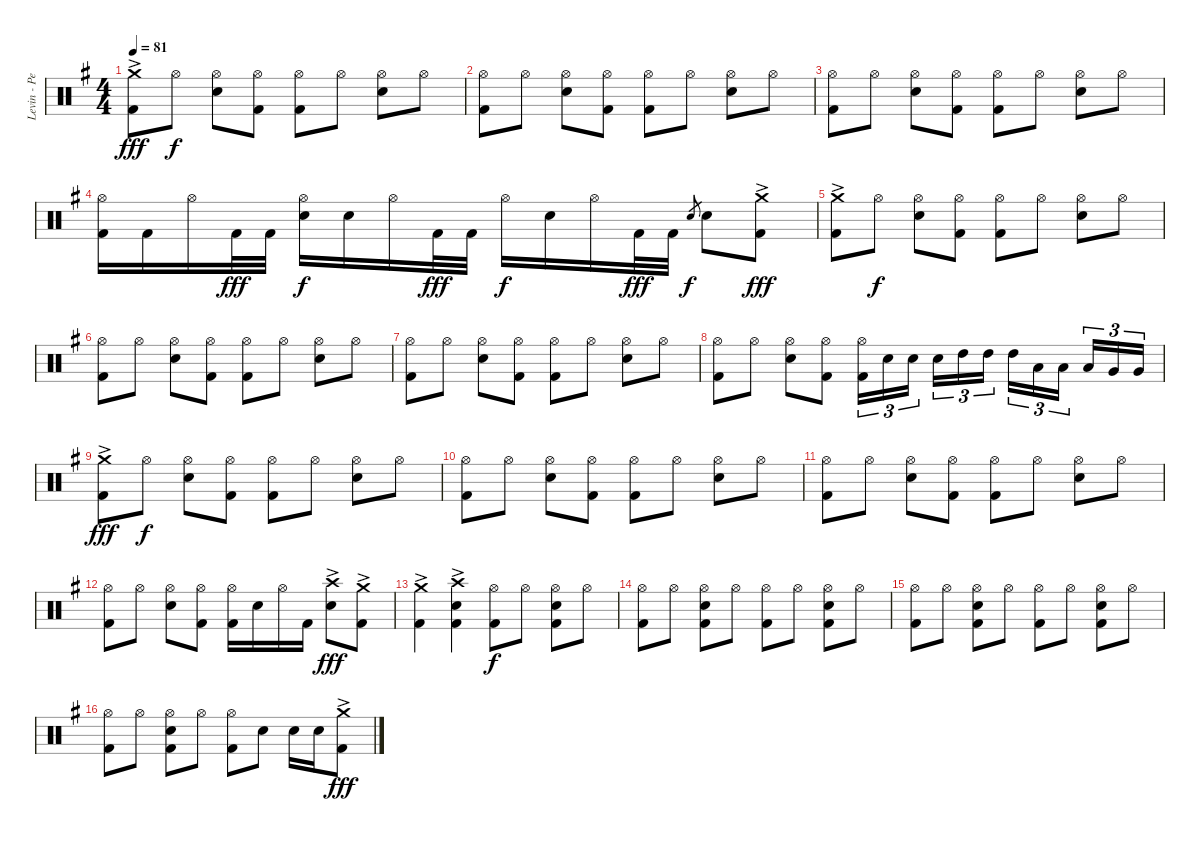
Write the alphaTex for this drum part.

\track ("Levin - Percussion" "Levin - Pe") {instrument percussion}
\staff {score}
\articulation defaults
\ts (4 4)
\tempo 81
\clef neutral
\ks g
("Crash medium (hit)"{ac} "Kick (hit) 2"{ac}).8{dy fff} "Hi-Hat (open)".8{dy f} ("Hi-Hat (open)" "Electric Snare (hit)").8 ("Hi-Hat (open)" "Kick (hit) 2").8 ("Hi-Hat (open)" "Kick (hit) 2").8 "Hi-Hat (open)".8 ("Hi-Hat (open)" "Electric Snare (hit)").8 "Hi-Hat (open)".8 |
("Hi-Hat (open)" "Kick (hit) 2").8 "Hi-Hat (open)".8 ("Hi-Hat (open)" "Electric Snare (hit)").8 ("Hi-Hat (open)" "Kick (hit) 2").8 ("Hi-Hat (open)" "Kick (hit) 2").8 "Hi-Hat (open)".8 ("Hi-Hat (open)" "Electric Snare (hit)").8 "Hi-Hat (open)".8 |
("Hi-Hat (open)" "Kick (hit) 2").8 "Hi-Hat (open)".8 ("Hi-Hat (open)" "Electric Snare (hit)").8 ("Hi-Hat (open)" "Kick (hit) 2").8 ("Hi-Hat (open)" "Kick (hit) 2").8 "Hi-Hat (open)".8 ("Hi-Hat (open)" "Electric Snare (hit)").8 "Hi-Hat (open)".8 |
("Hi-Hat (open)" "Kick (hit) 2").16 "Kick (hit) 2".16 "Hi-Hat (open)".16 "Kick (hit) 2".32{dy fff} "Kick (hit) 2".32 ("Hi-Hat (open)" "Electric Snare (hit)").16{dy f} "Electric Snare (hit)".16 "Hi-Hat (open)".16 "Kick (hit) 2".32{dy fff} "Kick (hit) 2".32 "Hi-Hat (open)".16{dy f} "Electric Snare (hit)".16 "Hi-Hat (open)".16 "Kick (hit) 2".32{dy fff} "Kick (hit) 2".32 "Electric Snare (hit)".8{gr dy f} "Electric Snare (hit)".8 ("Crash medium (hit)"{ac} "Kick (hit) 2"{ac}).8{dy fff} |
("Crash medium (hit)"{ac} "Kick (hit) 2"{ac}).8 "Hi-Hat (open)".8{dy f} ("Hi-Hat (open)" "Electric Snare (hit)").8 ("Hi-Hat (open)" "Kick (hit) 2").8 ("Hi-Hat (open)" "Kick (hit) 2").8 "Hi-Hat (open)".8 ("Hi-Hat (open)" "Electric Snare (hit)").8 "Hi-Hat (open)".8 |
("Hi-Hat (open)" "Kick (hit) 2").8 "Hi-Hat (open)".8 ("Hi-Hat (open)" "Electric Snare (hit)").8 ("Hi-Hat (open)" "Kick (hit) 2").8 ("Hi-Hat (open)" "Kick (hit) 2").8 "Hi-Hat (open)".8 ("Hi-Hat (open)" "Electric Snare (hit)").8 "Hi-Hat (open)".8 |
("Hi-Hat (open)" "Kick (hit) 2").8 "Hi-Hat (open)".8 ("Hi-Hat (open)" "Electric Snare (hit)").8 ("Hi-Hat (open)" "Kick (hit) 2").8 ("Hi-Hat (open)" "Kick (hit) 2").8 "Hi-Hat (open)".8 ("Hi-Hat (open)" "Electric Snare (hit)").8 "Hi-Hat (open)".8 |
("Hi-Hat (open)" "Kick (hit) 2").8 "Hi-Hat (open)".8 ("Hi-Hat (open)" "Electric Snare (hit)").8 ("Hi-Hat (open)" "Kick (hit) 2").8 ("Hi-Hat (open)" "Kick (hit) 2").16{tu (3 2)} "Electric Snare (hit)".16{tu (3 2)} "Electric Snare (hit)".16{tu (3 2)} "Electric Snare (hit)".16{tu (3 2)} "High Tom (hit)".16{tu (3 2)} "High Tom (hit)".16{tu (3 2)} "High Tom (hit)".16{tu (3 2)} "Low Tom (hit)".16{tu (3 2)} "Low Tom (hit)".16{tu (3 2)} "Low Tom (hit)".16{tu (3 2)} "Very Low Tom (hit)".16{tu (3 2)} "Very Low Tom (hit)".16{tu (3 2)} |
("Crash medium (hit)"{ac} "Kick (hit) 2"{ac}).8{dy fff} "Hi-Hat (open)".8{dy f} ("Hi-Hat (open)" "Electric Snare (hit)").8 ("Hi-Hat (open)" "Kick (hit) 2").8 ("Hi-Hat (open)" "Kick (hit) 2").8 "Hi-Hat (open)".8 ("Hi-Hat (open)" "Electric Snare (hit)").8 "Hi-Hat (open)".8 |
("Hi-Hat (open)" "Kick (hit) 2").8 "Hi-Hat (open)".8 ("Hi-Hat (open)" "Electric Snare (hit)").8 ("Hi-Hat (open)" "Kick (hit) 2").8 ("Hi-Hat (open)" "Kick (hit) 2").8 "Hi-Hat (open)".8 ("Hi-Hat (open)" "Electric Snare (hit)").8 "Hi-Hat (open)".8 |
("Hi-Hat (open)" "Kick (hit) 2").8 "Hi-Hat (open)".8 ("Hi-Hat (open)" "Electric Snare (hit)").8 ("Hi-Hat (open)" "Kick (hit) 2").8 ("Hi-Hat (open)" "Kick (hit) 2").8 "Hi-Hat (open)".8 ("Hi-Hat (open)" "Electric Snare (hit)").8 "Hi-Hat (open)".8 |
("Hi-Hat (open)" "Kick (hit) 2").8 "Hi-Hat (open)".8 ("Hi-Hat (open)" "Electric Snare (hit)").8 ("Hi-Hat (open)" "Kick (hit) 2").8 ("Hi-Hat (open)" "Kick (hit) 2").16 "Electric Snare (hit)".16 "Hi-Hat (open)".16 "Kick (hit) 2".16 ("Crash high (hit)"{ac} "Electric Snare (hit)").8{dy fff} ("Crash medium (hit)"{ac} "Kick (hit) 2"{ac}).8 |
("Crash medium (hit)"{ac} "Kick (hit) 2").4 ("Crash high (hit)"{ac} "Electric Snare (hit)" "Kick (hit) 2").4 ("Hi-Hat (open)" "Kick (hit) 2").8{dy f} "Hi-Hat (open)".8 ("Hi-Hat (open)" "Electric Snare (hit)" "Kick (hit) 2").8 "Hi-Hat (open)".8 |
("Hi-Hat (open)" "Kick (hit) 2").8 "Hi-Hat (open)".8 ("Hi-Hat (open)" "Electric Snare (hit)" "Kick (hit) 2").8 "Hi-Hat (open)".8 ("Hi-Hat (open)" "Kick (hit) 2").8 "Hi-Hat (open)".8 ("Hi-Hat (open)" "Electric Snare (hit)" "Kick (hit) 2").8 "Hi-Hat (open)".8 |
("Hi-Hat (open)" "Kick (hit) 2").8 "Hi-Hat (open)".8 ("Hi-Hat (open)" "Electric Snare (hit)" "Kick (hit) 2").8 "Hi-Hat (open)".8 ("Hi-Hat (open)" "Kick (hit) 2").8 "Hi-Hat (open)".8 ("Hi-Hat (open)" "Electric Snare (hit)" "Kick (hit) 2").8 "Hi-Hat (open)".8 |
("Hi-Hat (open)" "Kick (hit) 2").8 "Hi-Hat (open)".8 ("Hi-Hat (open)" "Electric Snare (hit)" "Kick (hit) 2").8 "Hi-Hat (open)".8 ("Hi-Hat (open)" "Kick (hit) 2").8 "Electric Snare (hit)".8 "Electric Snare (hit)".16 "Electric Snare (hit)".16 ("Crash medium (hit)"{ac} "Kick (hit) 2").8{dy fff}
